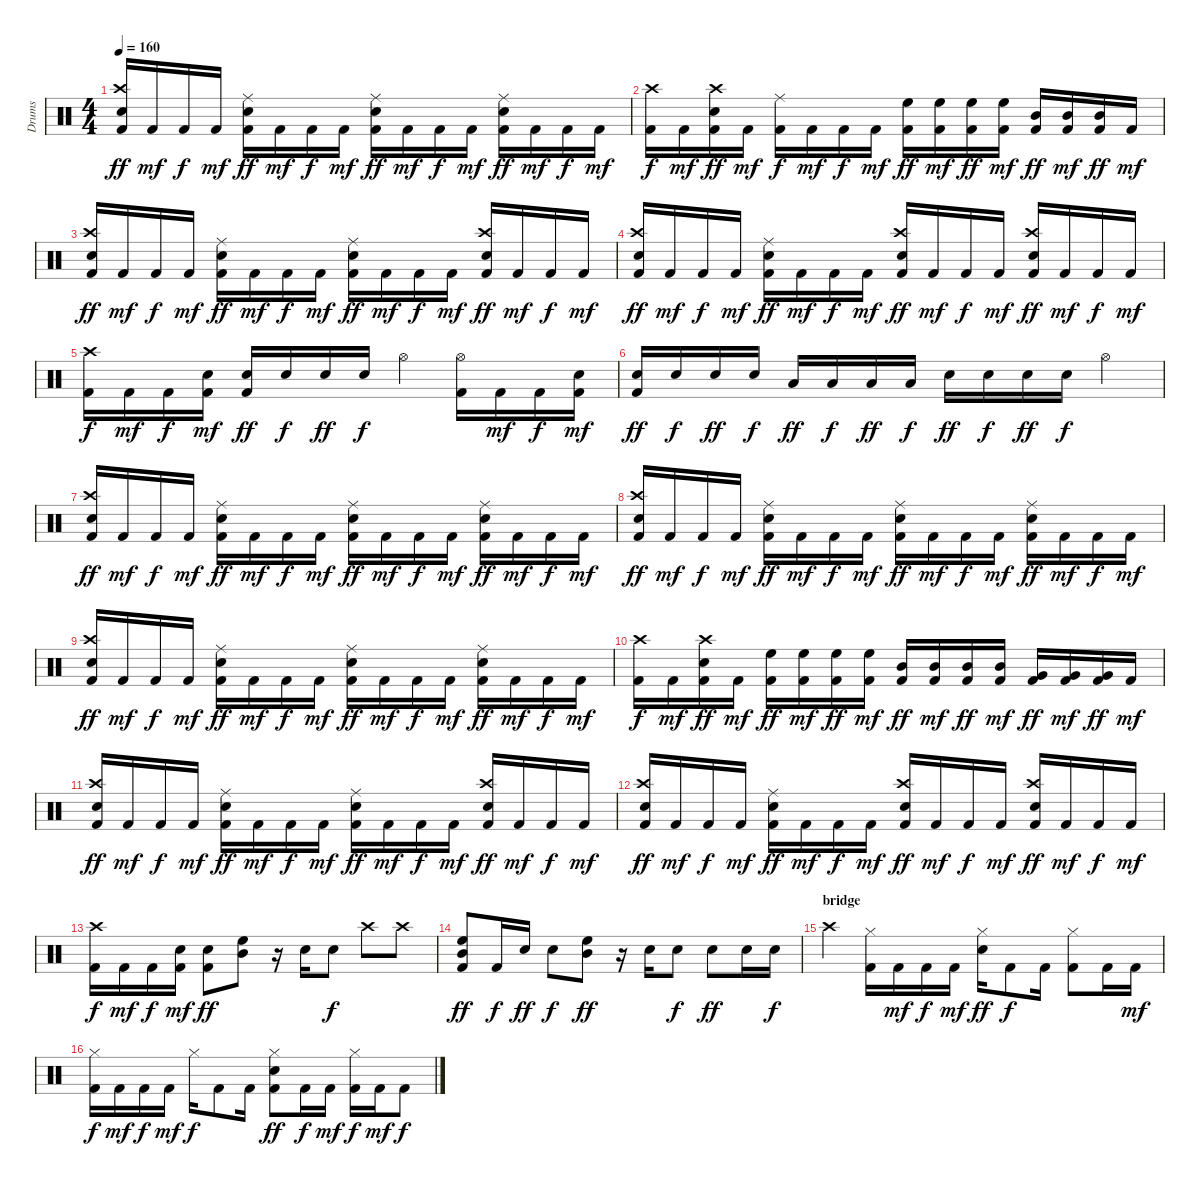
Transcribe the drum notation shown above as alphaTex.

\track ("Drums" "Drums") {instrument percussion}
\staff {score}
\articulation defaults
\ts (4 4)
\tempo 160
\clef neutral
\ks c
("Snare (hit) 2" "Crash high (hit)" "Kick (hit) 2").16{dy ff} "Kick (hit) 2".16{dy mf} "Kick (hit) 2".16{dy f} "Kick (hit) 2".16{dy mf} ("Snare (hit) 2" "Ride (middle)" "Kick (hit) 2").16{dy ff} "Kick (hit) 2".16{dy mf} "Kick (hit) 2".16{dy f} "Kick (hit) 2".16{dy mf} ("Snare (hit) 2" "Ride (middle)" "Kick (hit) 2").16{dy ff} "Kick (hit) 2".16{dy mf} "Kick (hit) 2".16{dy f} "Kick (hit) 2".16{dy mf} ("Snare (hit) 2" "Ride (middle)" "Kick (hit) 2").16{dy ff} "Kick (hit) 2".16{dy mf} "Kick (hit) 2".16{dy f} "Kick (hit) 2".16{dy mf} |
("Crash high (hit)" "Kick (hit) 2").16{dy f} "Kick (hit) 2".16{dy mf} ("Snare (hit) 2" "Crash high (hit)" "Kick (hit) 2").16{dy ff} "Kick (hit) 2".16{dy mf} ("Ride (middle)" "Kick (hit) 2").16{dy f} "Kick (hit) 2".16{dy mf} "Kick (hit) 2".16{dy f} "Kick (hit) 2".16{dy mf} ("High Floor Tom (hit)" "Kick (hit) 2").16{dy ff} ("High Floor Tom (hit)" "Kick (hit) 2").16{dy mf} ("High Floor Tom (hit)" "Kick (hit) 2").16{dy ff} ("High Floor Tom (hit)" "Kick (hit) 2").16{dy mf} ("Mid Tom (hit)" "Kick (hit) 2").16{dy ff} ("Mid Tom (hit)" "Kick (hit) 2").16{dy mf} ("Mid Tom (hit)" "Kick (hit) 2").16{dy ff} "Kick (hit) 2".16{dy mf} |
("Snare (hit) 2" "Crash high (hit)" "Kick (hit) 2").16{dy ff} "Kick (hit) 2".16{dy mf} "Kick (hit) 2".16{dy f} "Kick (hit) 2".16{dy mf} ("Snare (hit) 2" "Ride (middle)" "Kick (hit) 2").16{dy ff} "Kick (hit) 2".16{dy mf} "Kick (hit) 2".16{dy f} "Kick (hit) 2".16{dy mf} ("Snare (hit) 2" "Ride (middle)" "Kick (hit) 2").16{dy ff} "Kick (hit) 2".16{dy mf} "Kick (hit) 2".16{dy f} "Kick (hit) 2".16{dy mf} ("Snare (hit) 2" "Crash high (hit)" "Kick (hit) 2").16{dy ff} "Kick (hit) 2".16{dy mf} "Kick (hit) 2".16{dy f} "Kick (hit) 2".16{dy mf} |
("Snare (hit) 2" "Crash high (hit)" "Kick (hit) 2").16{dy ff} "Kick (hit) 2".16{dy mf} "Kick (hit) 2".16{dy f} "Kick (hit) 2".16{dy mf} ("Snare (hit) 2" "Ride (middle)" "Kick (hit) 2").16{dy ff} "Kick (hit) 2".16{dy mf} "Kick (hit) 2".16{dy f} "Kick (hit) 2".16{dy mf} ("Snare (hit) 2" "Crash high (hit)" "Kick (hit) 2").16{dy ff} "Kick (hit) 2".16{dy mf} "Kick (hit) 2".16{dy f} "Kick (hit) 2".16{dy mf} ("Crash high (hit)" "Snare (hit) 2" "Kick (hit) 2").16{dy ff} "Kick (hit) 2".16{dy mf} "Kick (hit) 2".16{dy f} "Kick (hit) 2".16{dy mf} |
("Crash high (hit)" "Kick (hit) 2").16{dy f} "Kick (hit) 2".16{dy mf} "Kick (hit) 2".16{dy f} ("Snare (hit) 2" "Kick (hit) 2").16{dy mf} ("Snare (hit) 2" "Kick (hit) 2").16{dy ff} "Snare (hit) 2".16{dy f} "Snare (hit) 2".16{dy ff} "Snare (hit) 2".16{dy f} "Hi-Hat (open)".4 ("Hi-Hat (open)" "Kick (hit) 2").16 "Kick (hit) 2".16{dy mf} "Kick (hit) 2".16{dy f} ("Snare (hit) 2" "Kick (hit) 2").16{dy mf} |
("Snare (hit) 2" "Kick (hit) 2").16{dy ff} "Snare (hit) 2".16{dy f} "Snare (hit) 2".16{dy ff} "Snare (hit) 2".16{dy f} "Low Tom (hit)".16{dy ff} "Low Tom (hit)".16{dy f} "Low Tom (hit)".16{dy ff} "Low Tom (hit)".16{dy f} "Snare (hit) 2".16{dy ff} "Snare (hit) 2".16{dy f} "Snare (hit) 2".16{dy ff} "Snare (hit) 2".16{dy f} "Hi-Hat (open)".4 |
("Snare (hit) 2" "Crash high (hit)" "Kick (hit) 2").16{dy ff} "Kick (hit) 2".16{dy mf} "Kick (hit) 2".16{dy f} "Kick (hit) 2".16{dy mf} ("Snare (hit) 2" "Ride (middle)" "Kick (hit) 2").16{dy ff} "Kick (hit) 2".16{dy mf} "Kick (hit) 2".16{dy f} "Kick (hit) 2".16{dy mf} ("Snare (hit) 2" "Ride (middle)" "Kick (hit) 2").16{dy ff} "Kick (hit) 2".16{dy mf} "Kick (hit) 2".16{dy f} "Kick (hit) 2".16{dy mf} ("Snare (hit) 2" "Ride (middle)" "Kick (hit) 2").16{dy ff} "Kick (hit) 2".16{dy mf} "Kick (hit) 2".16{dy f} "Kick (hit) 2".16{dy mf} |
("Snare (hit) 2" "Crash high (hit)" "Kick (hit) 2").16{dy ff} "Kick (hit) 2".16{dy mf} "Kick (hit) 2".16{dy f} "Kick (hit) 2".16{dy mf} ("Snare (hit) 2" "Ride (middle)" "Kick (hit) 2").16{dy ff} "Kick (hit) 2".16{dy mf} "Kick (hit) 2".16{dy f} "Kick (hit) 2".16{dy mf} ("Snare (hit) 2" "Ride (middle)" "Kick (hit) 2").16{dy ff} "Kick (hit) 2".16{dy mf} "Kick (hit) 2".16{dy f} "Kick (hit) 2".16{dy mf} ("Snare (hit) 2" "Ride (middle)" "Kick (hit) 2").16{dy ff} "Kick (hit) 2".16{dy mf} "Kick (hit) 2".16{dy f} "Kick (hit) 2".16{dy mf} |
("Snare (hit) 2" "Crash high (hit)" "Kick (hit) 2").16{dy ff} "Kick (hit) 2".16{dy mf} "Kick (hit) 2".16{dy f} "Kick (hit) 2".16{dy mf} ("Snare (hit) 2" "Ride (middle)" "Kick (hit) 2").16{dy ff} "Kick (hit) 2".16{dy mf} "Kick (hit) 2".16{dy f} "Kick (hit) 2".16{dy mf} ("Snare (hit) 2" "Ride (middle)" "Kick (hit) 2").16{dy ff} "Kick (hit) 2".16{dy mf} "Kick (hit) 2".16{dy f} "Kick (hit) 2".16{dy mf} ("Snare (hit) 2" "Ride (middle)" "Kick (hit) 2").16{dy ff} "Kick (hit) 2".16{dy mf} "Kick (hit) 2".16{dy f} "Kick (hit) 2".16{dy mf} |
("Crash high (hit)" "Kick (hit) 2").16{dy f} "Kick (hit) 2".16{dy mf} ("Snare (hit) 2" "Crash high (hit)" "Kick (hit) 2").16{dy ff} "Kick (hit) 2".16{dy mf} ("High Floor Tom (hit)" "Kick (hit) 2").16{dy ff} ("High Floor Tom (hit)" "Kick (hit) 2").16{dy mf} ("High Floor Tom (hit)" "Kick (hit) 2").16{dy ff} ("High Floor Tom (hit)" "Kick (hit) 2").16{dy mf} ("Mid Tom (hit)" "Kick (hit) 2").16{dy ff} ("Mid Tom (hit)" "Kick (hit) 2").16{dy mf} ("Mid Tom (hit)" "Kick (hit) 2").16{dy ff} ("Mid Tom (hit)" "Kick (hit) 2").16{dy mf} ("Very Low Tom (hit)" "Kick (hit) 2").16{dy ff} ("Very Low Tom (hit)" "Kick (hit) 2").16{dy mf} ("Very Low Tom (hit)" "Kick (hit) 2").16{dy ff} "Kick (hit) 2".16{dy mf} |
("Snare (hit) 2" "Crash high (hit)" "Kick (hit) 2").16{dy ff} "Kick (hit) 2".16{dy mf} "Kick (hit) 2".16{dy f} "Kick (hit) 2".16{dy mf} ("Snare (hit) 2" "Ride (middle)" "Kick (hit) 2").16{dy ff} "Kick (hit) 2".16{dy mf} "Kick (hit) 2".16{dy f} "Kick (hit) 2".16{dy mf} ("Snare (hit) 2" "Ride (middle)" "Kick (hit) 2").16{dy ff} "Kick (hit) 2".16{dy mf} "Kick (hit) 2".16{dy f} "Kick (hit) 2".16{dy mf} ("Snare (hit) 2" "Crash high (hit)" "Kick (hit) 2").16{dy ff} "Kick (hit) 2".16{dy mf} "Kick (hit) 2".16{dy f} "Kick (hit) 2".16{dy mf} |
("Snare (hit) 2" "Crash high (hit)" "Kick (hit) 2").16{dy ff} "Kick (hit) 2".16{dy mf} "Kick (hit) 2".16{dy f} "Kick (hit) 2".16{dy mf} ("Snare (hit) 2" "Ride (middle)" "Kick (hit) 2").16{dy ff} "Kick (hit) 2".16{dy mf} "Kick (hit) 2".16{dy f} "Kick (hit) 2".16{dy mf} ("Snare (hit) 2" "Crash high (hit)" "Kick (hit) 2").16{dy ff} "Kick (hit) 2".16{dy mf} "Kick (hit) 2".16{dy f} "Kick (hit) 2".16{dy mf} ("Snare (hit) 2" "Crash high (hit)" "Kick (hit) 2").16{dy ff} "Kick (hit) 2".16{dy mf} "Kick (hit) 2".16{dy f} "Kick (hit) 2".16{dy mf} |
("Crash high (hit)" "Kick (hit) 2").16{dy f} "Kick (hit) 2".16{dy mf} "Kick (hit) 2".16{dy f} ("Snare (hit) 2" "Kick (hit) 2").16{dy mf} ("Snare (hit) 2" "Kick (hit) 2").8{dy ff} ("Mid Tom (hit)" "High Floor Tom (hit)").8 r.16 "Snare (hit) 2".16 "Snare (hit) 2".8{dy f} "Crash high (hit)".8 "Crash high (hit)".8 |
("Mid Tom (hit)" "High Floor Tom (hit)" "Kick (hit) 2").8{dy ff} "Kick (hit) 2".16{dy f} "Snare (hit) 2".16{dy ff} "Snare (hit) 2".8{dy f} ("Mid Tom (hit)" "High Floor Tom (hit)").8{dy ff} r.16 "Snare (hit) 2".16 "Snare (hit) 2".8{dy f} "Snare (hit) 2".8{dy ff} "Snare (hit) 2".16 "Snare (hit) 2".16{dy f} |
\section ("" "bridge")
"Crash high (hit)".4 ("Hi-Hat (closed)" "Kick (hit) 2").16 "Kick (hit) 2".16{dy mf} "Kick (hit) 2".16{dy f} "Kick (hit) 2".16{dy mf} ("Snare (hit) 2" "Hi-Hat (closed)").16{dy ff} "Kick (hit) 2".8{dy f} "Kick (hit) 2".16 ("Hi-Hat (closed)" "Kick (hit) 2").8 "Kick (hit) 2".16 "Kick (hit) 2".16{dy mf} |
("Hi-Hat (closed)" "Kick (hit) 2").16{dy f} "Kick (hit) 2".16{dy mf} "Kick (hit) 2".16{dy f} "Kick (hit) 2".16{dy mf} "Hi-Hat (closed)".16{dy f} "Kick (hit) 2".8 "Kick (hit) 2".16 ("Snare (hit) 2" "Hi-Hat (closed)" "Kick (hit) 2").8{dy ff} "Kick (hit) 2".16{dy f} "Kick (hit) 2".16{dy mf} ("Hi-Hat (closed)" "Kick (hit) 2").16{dy f} "Kick (hit) 2".16{dy mf} "Kick (hit) 2".8{dy f}
